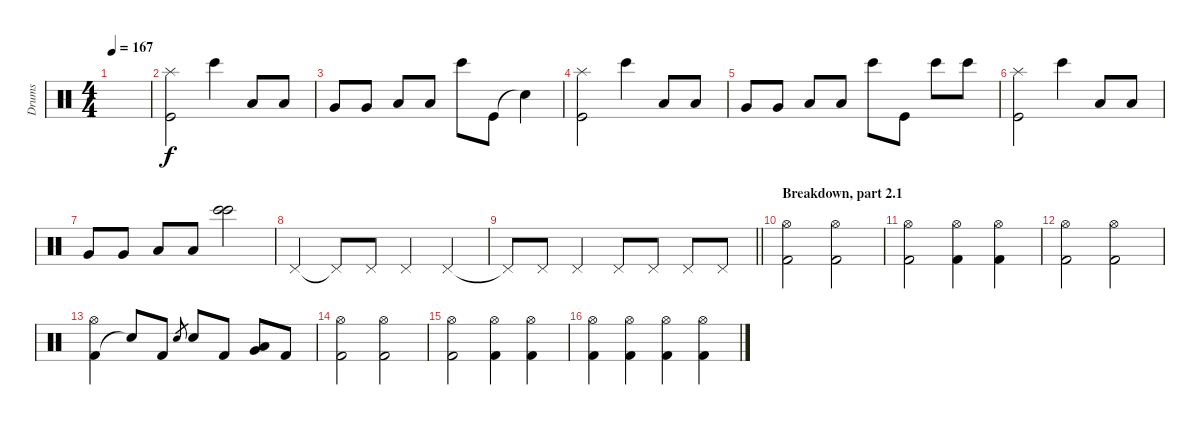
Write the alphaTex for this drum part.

\track ("Drums" "Drums") {instrument percussion}
\staff {score}
\articulation defaults
\ts (4 4)
\tempo 167
\clef neutral
\ks c
|
("Kick (hit)" "Splash (hit)").2 "Bongo High (hit)".4 "Low Tom (hit)".8 "Low Tom (hit)".8 |
"Very Low Tom (hit)".8 "Very Low Tom (hit)".8 "Low Floor Tom (hit)".8 "Low Floor Tom (hit)".8 "Bongo High (hit)".8 "Kick (hit)".8 "Snare (hit)"{t}.4 |
("Kick (hit)" "Splash (hit)").2 "Bongo High (hit)".4 "Low Tom (hit)".8 "Low Tom (hit)".8 |
"Very Low Tom (hit)".8 "Very Low Tom (hit)".8 "Low Floor Tom (hit)".8 "Low Floor Tom (hit)".8 "Bongo High (hit)".8 "Kick (hit)".8 "Bongo High (hit)".8 "Bongo High (hit)".8 |
("Kick (hit)" "Splash (hit)").2 "Bongo High (hit)".4 "Low Tom (hit)".8 "Low Tom (hit)".8 |
"Very Low Tom (hit)".8 "Very Low Tom (hit)".8 "Low Floor Tom (hit)".8 "Low Floor Tom (hit)".8 ("Bongo High (hit)" "Bongo High (hit)").2 |
"Pedal Hi-Hat (hit)".4 "Pedal Hi-Hat (hit)"{t}.8 "Pedal Hi-Hat (hit)".8 "Pedal Hi-Hat (hit)".4 "Pedal Hi-Hat (hit)".4 |
\barLineRight lightlight "Pedal Hi-Hat (hit)"{t}.8 "Pedal Hi-Hat (hit)".8 "Pedal Hi-Hat (hit)".4 "Pedal Hi-Hat (hit)".8 "Pedal Hi-Hat (hit)".8 "Pedal Hi-Hat (hit)".8 "Pedal Hi-Hat (hit)".8
|
\section ("" "Breakdown, part 2.1")
("Kick (hit) 2" "Hi-Hat (open)").2 ("Kick (hit) 2" "Hi-Hat (open)").2 |
("Kick (hit) 2" "Hi-Hat (open)").2 ("Kick (hit) 2" "Hi-Hat (open)").4 ("Kick (hit) 2" "Hi-Hat (open)").4 |
("Kick (hit) 2" "Hi-Hat (open)").2 ("Kick (hit) 2" "Hi-Hat (open)").2 |
("Kick (hit) 2" "Hi-Hat (open)").4 "Snare (hit)"{t}.8 "Kick (hit) 2".8 "Electric Snare (hit)".8{gr} "Electric Snare (hit)".8 "Kick (hit) 2".8 ("Very Low Tom (hit)" "Low Floor Tom (hit)").8 "Kick (hit) 2".8 |
("Kick (hit) 2" "Hi-Hat (open)").2 ("Kick (hit) 2" "Hi-Hat (open)").2 |
("Kick (hit) 2" "Hi-Hat (open)").2 ("Kick (hit) 2" "Hi-Hat (open)").4 ("Kick (hit) 2" "Hi-Hat (open)").4 |
("Kick (hit) 2" "Hi-Hat (open)").4 ("Kick (hit) 2" "Hi-Hat (open)").4 ("Kick (hit) 2" "Hi-Hat (open)").4 ("Kick (hit) 2" "Hi-Hat (open)").4
